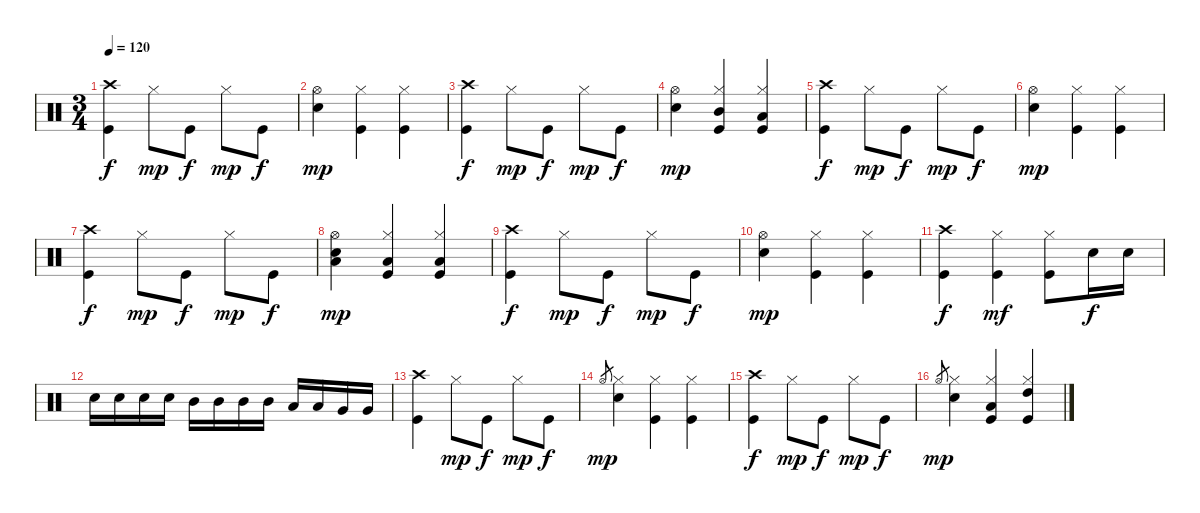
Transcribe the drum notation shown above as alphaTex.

\track "" {instrument percussion}
\staff {score}
\articulation defaults
\ts (3 4)
\tempo 120
\clef neutral
\ks c
("Crash high (hit)" "Kick (hit)").4{dy f} "Hi-Hat (closed)".8{dy mp} "Kick (hit)".8{dy f} "Hi-Hat (closed)".8{dy mp} "Kick (hit)".8{dy f} |
("Hi-Hat (open)" "Electric Snare (hit)").4{dy mp} ("Hi-Hat (closed)" "Kick (hit)").4 ("Hi-Hat (closed)" "Kick (hit)").4 |
("Crash high (hit)" "Kick (hit)").4{dy f} "Hi-Hat (closed)".8{dy mp} "Kick (hit)".8{dy f} "Hi-Hat (closed)".8{dy mp} "Kick (hit)".8{dy f} |
("Hi-Hat (open)" "Electric Snare (hit)").4{dy mp} ("Hi-Hat (closed)" "Mid Tom (hit)" "Kick (hit)").4 ("Hi-Hat (closed)" "Low Tom (hit)" "Kick (hit)").4 |
("Crash high (hit)" "Kick (hit)").4{dy f} "Hi-Hat (closed)".8{dy mp} "Kick (hit)".8{dy f} "Hi-Hat (closed)".8{dy mp} "Kick (hit)".8{dy f} |
("Hi-Hat (open)" "Electric Snare (hit)").4{dy mp} ("Hi-Hat (closed)" "Kick (hit)").4 ("Hi-Hat (closed)" "Kick (hit)").4 |
("Crash high (hit)" "Kick (hit)").4{dy f} "Hi-Hat (closed)".8{dy mp} "Kick (hit)".8{dy f} "Hi-Hat (closed)".8{dy mp} "Kick (hit)".8{dy f} |
("Hi-Hat (open)" "Low Floor Tom (hit)" "Electric Snare (hit)").4{dy mp} ("Hi-Hat (closed)" "Low Floor Tom (hit)" "Kick (hit)").4 ("Hi-Hat (closed)" "Low Floor Tom (hit)" "Kick (hit)").4 |
("Crash high (hit)" "Kick (hit)").4{dy f} "Hi-Hat (closed)".8{dy mp} "Kick (hit)".8{dy f} "Hi-Hat (closed)".8{dy mp} "Kick (hit)".8{dy f} |
("Hi-Hat (open)" "Electric Snare (hit)").4{dy mp} ("Hi-Hat (closed)" "Kick (hit)").4 ("Hi-Hat (closed)" "Kick (hit)").4 |
("Crash high (hit)" "Kick (hit)").4{dy f} ("Hi-Hat (closed)" "Kick (hit)").4{dy mf} ("Hi-Hat (closed)" "Kick (hit)").8 "Electric Snare (hit)".16{dy f} "Electric Snare (hit)".16 |
"Electric Snare (hit)".16 "Electric Snare (hit)".16 "Electric Snare (hit)".16 "Electric Snare (hit)".16 "Mid Tom (hit)".16 "Mid Tom (hit)".16 "Mid Tom (hit)".16 "Mid Tom (hit)".16 "Low Tom (hit)".16 "Low Tom (hit)".16 "Very Low Tom (hit)".16 "Very Low Tom (hit)".16 |
("Crash high (hit)" "Kick (hit)").4 "Hi-Hat (closed)".8{dy mp} "Kick (hit)".8{dy f} "Hi-Hat (closed)".8{dy mp} "Kick (hit)".8{dy f} |
"Hi-Hat (open)".8{gr dy mp} ("Hi-Hat (closed)" "Electric Snare (hit)").4 ("Hi-Hat (closed)" "Kick (hit)").4 ("Hi-Hat (closed)" "Kick (hit)").4 |
("Crash high (hit)" "Kick (hit)").4{dy f} "Hi-Hat (closed)".8{dy mp} "Kick (hit)".8{dy f} "Hi-Hat (closed)".8{dy mp} "Kick (hit)".8{dy f} |
"Hi-Hat (open)".8{gr dy mp} ("Hi-Hat (closed)" "Electric Snare (hit)").4 ("Hi-Hat (closed)" "Low Tom (hit)" "Kick (hit)").4 ("Hi-Hat (closed)" "High Tom (hit)" "Kick (hit)").4
